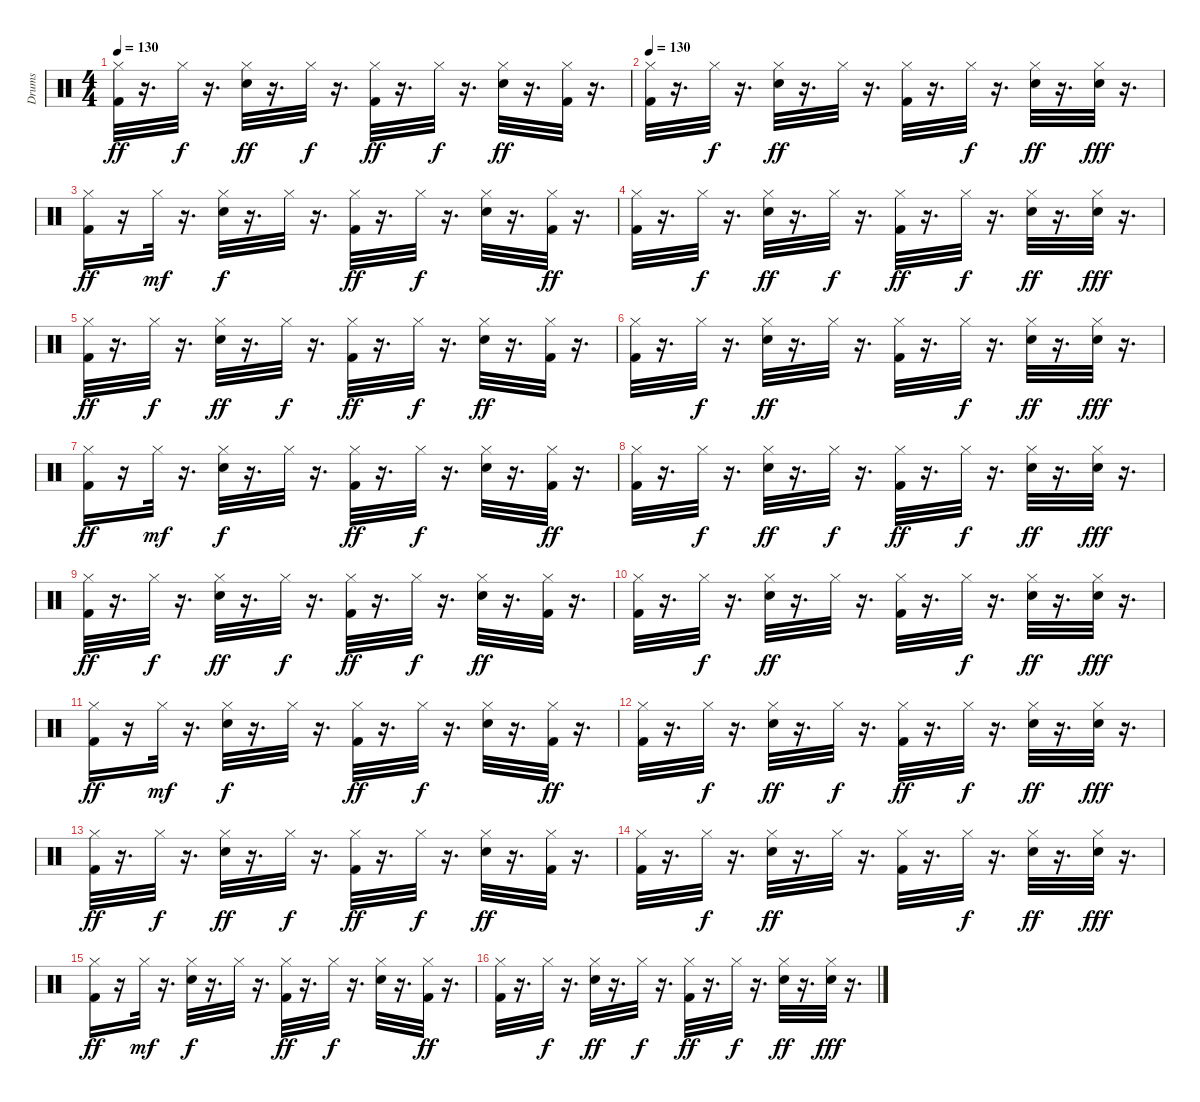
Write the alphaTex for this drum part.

\track ("Drums" "Drums") {instrument percussion}
\staff {score}
\articulation defaults
\ts (4 4)
\tempo 130
\clef neutral
\ks c
("Kick (hit) 2" "Hi-Hat (closed)").32{dy ff} r.16{d} "Hi-Hat (closed)".32{dy f} r.16{d} ("Hi-Hat (closed)" "Snare (hit) 2").32{dy ff} r.16{d} "Hi-Hat (closed)".32{dy f} r.16{d} ("Hi-Hat (closed)" "Kick (hit) 2").32{dy ff} r.16{d} "Hi-Hat (closed)".32{dy f} r.16{d} ("Hi-Hat (closed)" "Snare (hit) 2").32{dy ff} r.16{d} ("Hi-Hat (closed)" "Kick (hit) 2").32 r.16{d} |
\tempo 130
("Kick (hit) 2" "Hi-Hat (closed)").32 r.16{d} "Hi-Hat (closed)".32{dy f} r.16{d} ("Hi-Hat (closed)" "Snare (hit) 2").32{dy ff} r.16{d} "Hi-Hat (closed)".32 r.16{d} ("Kick (hit) 2" "Hi-Hat (closed)").32 r.16{d} "Hi-Hat (closed)".32{dy f} r.16{d} ("Snare (hit) 2" "Hi-Hat (closed)").32{dy ff} r.16{d} ("Hi-Hat (closed)" "Hand Clap (hit)").32{dy fff} r.16{d} |
("Hi-Hat (closed)" "Kick (hit) 2").16{dy ff} r.16 "Hi-Hat (closed)".32{dy mf} r.16{d} ("Hi-Hat (closed)" "Snare (hit) 2").32{dy f} r.16{d} "Hi-Hat (closed)".32 r.16{d} ("Hi-Hat (closed)" "Kick (hit) 2").32{dy ff} r.16{d} "Hi-Hat (closed)".32{dy f} r.16{d} ("Snare (hit) 2" "Hi-Hat (closed)").32 r.16{d} ("Hi-Hat (closed)" "Kick (hit) 2").32{dy ff} r.16{d} |
("Kick (hit) 2" "Hi-Hat (closed)").32 r.16{d} "Hi-Hat (closed)".32{dy f} r.16{d} ("Hi-Hat (closed)" "Snare (hit) 2").32{dy ff} r.16{d} "Hi-Hat (closed)".32{dy f} r.16{d} ("Hi-Hat (closed)" "Kick (hit) 2").32{dy ff} r.16{d} "Hi-Hat (closed)".32{dy f} r.16{d} ("Hi-Hat (closed)" "Snare (hit) 2").32{dy ff} r.16{d} ("Hi-Hat (closed)" "Hand Clap (hit)").32{dy fff} r.16{d} |
("Kick (hit) 2" "Hi-Hat (closed)").32{dy ff} r.16{d} "Hi-Hat (closed)".32{dy f} r.16{d} ("Hi-Hat (closed)" "Snare (hit) 2").32{dy ff} r.16{d} "Hi-Hat (closed)".32{dy f} r.16{d} ("Hi-Hat (closed)" "Kick (hit) 2").32{dy ff} r.16{d} "Hi-Hat (closed)".32{dy f} r.16{d} ("Hi-Hat (closed)" "Snare (hit) 2").32{dy ff} r.16{d} ("Kick (hit) 2" "Hi-Hat (closed)").32 r.16{d} |
("Hi-Hat (closed)" "Kick (hit) 2").32 r.16{d} "Hi-Hat (closed)".32{dy f} r.16{d} ("Snare (hit) 2" "Hi-Hat (closed)").32{dy ff} r.16{d} "Hi-Hat (closed)".32 r.16{d} ("Kick (hit) 2" "Hi-Hat (closed)").32 r.16{d} "Hi-Hat (closed)".32{dy f} r.16{d} ("Snare (hit) 2" "Hi-Hat (closed)").32{dy ff} r.16{d} ("Hi-Hat (closed)" "Hand Clap (hit)").32{dy fff} r.16{d} |
("Hi-Hat (closed)" "Kick (hit) 2").16{dy ff} r.16 "Hi-Hat (closed)".32{dy mf} r.16{d} ("Hi-Hat (closed)" "Snare (hit) 2").32{dy f} r.16{d} "Hi-Hat (closed)".32 r.16{d} ("Kick (hit) 2" "Hi-Hat (closed)").32{dy ff} r.16{d} "Hi-Hat (closed)".32{dy f} r.16{d} ("Hi-Hat (closed)" "Snare (hit) 2").32 r.16{d} ("Kick (hit) 2" "Hi-Hat (closed)").32{dy ff} r.16{d} |
("Kick (hit) 2" "Hi-Hat (closed)").32 r.16{d} "Hi-Hat (closed)".32{dy f} r.16{d} ("Hi-Hat (closed)" "Snare (hit) 2").32{dy ff} r.16{d} "Hi-Hat (closed)".32{dy f} r.16{d} ("Hi-Hat (closed)" "Kick (hit) 2").32{dy ff} r.16{d} "Hi-Hat (closed)".32{dy f} r.16{d} ("Hi-Hat (closed)" "Snare (hit) 2").32{dy ff} r.16{d} ("Hand Clap (hit)" "Hi-Hat (closed)").32{dy fff} r.16{d} |
("Kick (hit) 2" "Hi-Hat (closed)").32{dy ff} r.16{d} "Hi-Hat (closed)".32{dy f} r.16{d} ("Hi-Hat (closed)" "Snare (hit) 2").32{dy ff} r.16{d} "Hi-Hat (closed)".32{dy f} r.16{d} ("Hi-Hat (closed)" "Kick (hit) 2").32{dy ff} r.16{d} "Hi-Hat (closed)".32{dy f} r.16{d} ("Hi-Hat (closed)" "Snare (hit) 2").32{dy ff} r.16{d} ("Hi-Hat (closed)" "Kick (hit) 2").32 r.16{d} |
("Kick (hit) 2" "Hi-Hat (closed)").32 r.16{d} "Hi-Hat (closed)".32{dy f} r.16{d} ("Hi-Hat (closed)" "Snare (hit) 2").32{dy ff} r.16{d} "Hi-Hat (closed)".32 r.16{d} ("Hi-Hat (closed)" "Kick (hit) 2").32 r.16{d} "Hi-Hat (closed)".32{dy f} r.16{d} ("Hi-Hat (closed)" "Snare (hit) 2").32{dy ff} r.16{d} ("Hi-Hat (closed)" "Hand Clap (hit)").32{dy fff} r.16{d} |
("Hi-Hat (closed)" "Kick (hit) 2").16{dy ff} r.16 "Hi-Hat (closed)".32{dy mf} r.16{d} ("Hi-Hat (closed)" "Snare (hit) 2").32{dy f} r.16{d} "Hi-Hat (closed)".32 r.16{d} ("Hi-Hat (closed)" "Kick (hit) 2").32{dy ff} r.16{d} "Hi-Hat (closed)".32{dy f} r.16{d} ("Hi-Hat (closed)" "Snare (hit) 2").32 r.16{d} ("Hi-Hat (closed)" "Kick (hit) 2").32{dy ff} r.16{d} |
("Kick (hit) 2" "Hi-Hat (closed)").32 r.16{d} "Hi-Hat (closed)".32{dy f} r.16{d} ("Hi-Hat (closed)" "Snare (hit) 2").32{dy ff} r.16{d} "Hi-Hat (closed)".32{dy f} r.16{d} ("Hi-Hat (closed)" "Kick (hit) 2").32{dy ff} r.16{d} "Hi-Hat (closed)".32{dy f} r.16{d} ("Hi-Hat (closed)" "Snare (hit) 2").32{dy ff} r.16{d} ("Hi-Hat (closed)" "Hand Clap (hit)").32{dy fff} r.16{d} |
("Kick (hit) 2" "Hi-Hat (closed)").32{dy ff} r.16{d} "Hi-Hat (closed)".32{dy f} r.16{d} ("Hi-Hat (closed)" "Snare (hit) 2").32{dy ff} r.16{d} "Hi-Hat (closed)".32{dy f} r.16{d} ("Kick (hit) 2" "Hi-Hat (closed)").32{dy ff} r.16{d} "Hi-Hat (closed)".32{dy f} r.16{d} ("Snare (hit) 2" "Hi-Hat (closed)").32{dy ff} r.16{d} ("Hi-Hat (closed)" "Kick (hit) 2").32 r.16{d} |
("Kick (hit) 2" "Hi-Hat (closed)").32 r.16{d} "Hi-Hat (closed)".32{dy f} r.16{d} ("Hi-Hat (closed)" "Snare (hit) 2").32{dy ff} r.16{d} "Hi-Hat (closed)".32 r.16{d} ("Kick (hit) 2" "Hi-Hat (closed)").32 r.16{d} "Hi-Hat (closed)".32{dy f} r.16{d} ("Snare (hit) 2" "Hi-Hat (closed)").32{dy ff} r.16{d} ("Hi-Hat (closed)" "Hand Clap (hit)").32{dy fff} r.16{d} |
("Kick (hit) 2" "Hi-Hat (closed)").16{dy ff} r.16 "Hi-Hat (closed)".32{dy mf} r.16{d} ("Hi-Hat (closed)" "Snare (hit) 2").32{dy f} r.16{d} "Hi-Hat (closed)".32 r.16{d} ("Hi-Hat (closed)" "Kick (hit) 2").32{dy ff} r.16{d} "Hi-Hat (closed)".32{dy f} r.16{d} ("Hi-Hat (closed)" "Snare (hit) 2").32 r.16{d} ("Hi-Hat (closed)" "Kick (hit) 2").32{dy ff} r.16{d} |
("Kick (hit) 2" "Hi-Hat (closed)").32 r.16{d} "Hi-Hat (closed)".32{dy f} r.16{d} ("Snare (hit) 2" "Hi-Hat (closed)").32{dy ff} r.16{d} "Hi-Hat (closed)".32{dy f} r.16{d} ("Kick (hit) 2" "Hi-Hat (closed)").32{dy ff} r.16{d} "Hi-Hat (closed)".32{dy f} r.16{d} ("Hi-Hat (closed)" "Snare (hit) 2").32{dy ff} r.16{d} ("Hi-Hat (closed)" "Hand Clap (hit)").32{dy fff} r.16{d}
